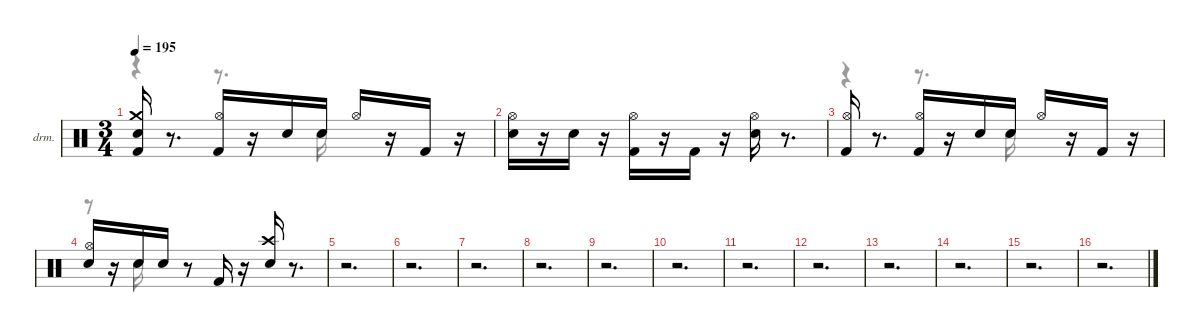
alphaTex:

\hideDynamics
\bracketExtendMode nobrackets
\firstSystemTrackNameOrientation horizontal
\otherSystemsTrackNameOrientation horizontal
\track ("EZdrummer 3" "drm.") {instrument percussion}
\staff {score}
\articulation defaults
\voice
\ts (3 4)
\tempo 195
\clef neutral
\ks aminor
("Kick (hit) 2" "Snare (hit) 2" "Crash medium (hit)").16{dy ff beam Up} r.8{d beam Up} ("Kick (hit) 2" "Hi-Hat (open)"{acc #}).16{dy mf beam Up} r.16{beam Up} "Snare (hit) 2".16{dy f beam Up} "Snare (hit) 2".16{dy ppp beam Up} "Hi-Hat (open)"{acc #}.16{dy mf beam Up} r.16{beam Up} "Kick (hit) 2".16{dy f beam Up} r.16{beam Up} |
("Snare (hit) 2" "Hi-Hat (open)"{acc #}).16{dy ff beam Down} r.16{beam Down} "Snare (hit) 2".16{dy ppp beam Down} r.16{beam Down} ("Kick (hit) 2" "Hi-Hat (open)"{acc #}).16{beam Down} r.16{beam Down} "Kick (hit) 2".16{dy ff beam Up} r.16{beam Up} ("Snare (hit) 2" "Hi-Hat (open)"{acc #}).16{dy f beam Down} r.8{d beam Down} |
("Kick (hit) 2" "Hi-Hat (open)"{acc #}).16{dy fff beam Up} r.8{d beam Up} ("Kick (hit) 2" "Hi-Hat (open)"{acc #}).16{dy f beam Up} r.16{beam Up} "Snare (hit) 2".16{beam Up} "Snare (hit) 2".16{dy ppp beam Up} "Hi-Hat (open)"{acc #}.16{dy ff beam Up} r.16{beam Up} "Kick (hit) 2".16{dy f beam Up} r.16{beam Up} |
("Snare (hit) 2" "Hi-Hat (open)"{acc #}).16{dy fff beam Up} r.16{beam Up} "Snare (hit) 2".16{dy f beam Up} "Snare (hit) 2".16{dy mp beam Up} r.8{beam Up} "Kick (hit) 2".16{dy ff beam Up} r.16{beam Up} ("Snare (hit) 2" "Crash high (hit)"{acc #}).16{dy fff beam Up} r.8{d beam Up} |
r.2{d beam Down} |
r.2{d beam Down} |
r.2{d beam Down} |
r.2{d beam Down} |
r.2{d beam Down} |
r.2{d beam Down} |
r.2{d beam Down} |
r.2{d beam Down} |
r.2{d beam Down} |
r.2{d beam Down} |
r.2{d beam Down} |
r.2{d beam Down}
\voice
\clef neutral
\ottava regular
\simile none
\ks aminor
r.4{dy pp beam Down} r.8{d beam Down} "Snare (hit) 2".16{beam Down} |
|
r.4{beam Down} r.8{d beam Down} "Snare (hit) 2".16{beam Down} |
r.8{beam Down} "Snare (hit) 2".16{dy ppp beam Down} |
|
|
|
|
|
|
|
|
|
|
|
